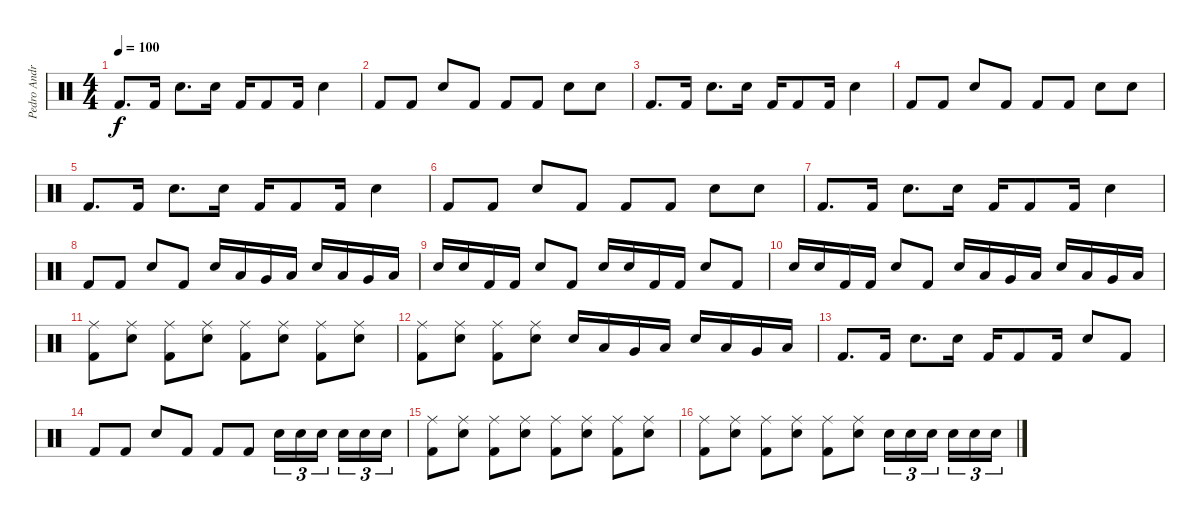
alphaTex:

\track ("Pedro Andreu" "Pedro Andr") {instrument percussion}
\staff {score}
\articulation defaults
\ts (4 4)
\tempo 100
\clef neutral
\ks c "Kick (hit) 2".8{d dy f} "Kick (hit) 2".16 "Snare (hit) 2".8{d} "Snare (hit) 2".16 "Kick (hit) 2".16 "Kick (hit) 2".8 "Kick (hit) 2".16 "Snare (hit) 2".4
|
"Kick (hit) 2".8 "Kick (hit) 2".8 "Snare (hit) 2".8 "Kick (hit) 2".8 "Kick (hit) 2".8 "Kick (hit) 2".8 "Snare (hit) 2".8 "Snare (hit) 2".8 |
"Kick (hit) 2".8{d} "Kick (hit) 2".16 "Snare (hit) 2".8{d} "Snare (hit) 2".16 "Kick (hit) 2".16 "Kick (hit) 2".8 "Kick (hit) 2".16 "Snare (hit) 2".4 |
"Kick (hit) 2".8 "Kick (hit) 2".8 "Snare (hit) 2".8 "Kick (hit) 2".8 "Kick (hit) 2".8 "Kick (hit) 2".8 "Snare (hit) 2".8 "Snare (hit) 2".8 |
"Kick (hit) 2".8{d} "Kick (hit) 2".16 "Snare (hit) 2".8{d} "Snare (hit) 2".16 "Kick (hit) 2".16 "Kick (hit) 2".8 "Kick (hit) 2".16 "Snare (hit) 2".4 |
"Kick (hit) 2".8 "Kick (hit) 2".8 "Snare (hit) 2".8 "Kick (hit) 2".8 "Kick (hit) 2".8 "Kick (hit) 2".8 "Snare (hit) 2".8 "Snare (hit) 2".8 |
"Kick (hit) 2".8{d} "Kick (hit) 2".16 "Snare (hit) 2".8{d} "Snare (hit) 2".16 "Kick (hit) 2".16 "Kick (hit) 2".8 "Kick (hit) 2".16 "Snare (hit) 2".4 |
"Kick (hit) 2".8 "Kick (hit) 2".8 "Snare (hit) 2".8 "Kick (hit) 2".8 "Snare (hit) 2".16 "Low Tom (hit)".16 "Very Low Tom (hit)".16 "Low Floor Tom (hit)".16 "Snare (hit) 2".16 "Low Tom (hit)".16 "Very Low Tom (hit)".16 "Low Floor Tom (hit)".16 |
"Snare (hit) 2".16 "Snare (hit) 2".16 "Kick (hit) 2".16 "Kick (hit) 2".16 "Snare (hit) 2".8 "Kick (hit) 2".8 "Snare (hit) 2".16 "Snare (hit) 2".16 "Kick (hit) 2".16 "Kick (hit) 2".16 "Snare (hit) 2".8 "Kick (hit) 2".8 |
"Snare (hit) 2".16 "Snare (hit) 2".16 "Kick (hit) 2".16 "Kick (hit) 2".16 "Snare (hit) 2".8 "Kick (hit) 2".8 "Snare (hit) 2".16 "Low Tom (hit)".16 "Very Low Tom (hit)".16 "Low Floor Tom (hit)".16 "Snare (hit) 2".16 "Low Tom (hit)".16 "Very Low Tom (hit)".16 "Low Floor Tom (hit)".16 |
("Ride (middle)" "Kick (hit) 2").8 ("Ride (middle)" "Snare (hit) 2").8 ("Ride (middle)" "Kick (hit) 2").8 ("Ride (middle)" "Snare (hit) 2").8 ("Ride (middle)" "Kick (hit) 2").8 ("Snare (hit) 2" "Ride (middle)").8 ("Kick (hit) 2" "Ride (middle)").8 ("Snare (hit) 2" "Ride (middle)").8 |
("Ride (middle)" "Kick (hit) 2").8 ("Ride (middle)" "Snare (hit) 2").8 ("Ride (middle)" "Kick (hit) 2").8 ("Ride (middle)" "Snare (hit) 2").8 "Snare (hit) 2".16 "Low Tom (hit)".16 "Very Low Tom (hit)".16 "Low Floor Tom (hit)".16 "Snare (hit) 2".16 "Low Tom (hit)".16 "Very Low Tom (hit)".16 "Low Floor Tom (hit)".16 |
"Kick (hit) 2".8{d} "Kick (hit) 2".16 "Snare (hit) 2".8{d} "Snare (hit) 2".16 "Kick (hit) 2".16 "Kick (hit) 2".8 "Kick (hit) 2".16 "Snare (hit) 2".8 "Kick (hit) 2".8 |
"Kick (hit) 2".8 "Kick (hit) 2".8 "Snare (hit) 2".8 "Kick (hit) 2".8 "Kick (hit) 2".8 "Kick (hit) 2".8 "Snare (hit) 2".16{tu (3 2)} "Snare (hit) 2".16{tu (3 2)} "Snare (hit) 2".16{tu (3 2) beam splitsecondary} "Snare (hit) 2".16{tu (3 2)} "Snare (hit) 2".16{tu (3 2)} "Snare (hit) 2".16{tu (3 2)} |
("Ride (middle)" "Kick (hit) 2").8 ("Ride (middle)" "Snare (hit) 2").8 ("Ride (middle)" "Kick (hit) 2").8 ("Ride (middle)" "Snare (hit) 2").8 ("Ride (middle)" "Kick (hit) 2").8 ("Snare (hit) 2" "Ride (middle)").8 ("Kick (hit) 2" "Ride (middle)").8 ("Snare (hit) 2" "Ride (middle)").8 |
("Ride (middle)" "Kick (hit) 2").8 ("Ride (middle)" "Snare (hit) 2").8 ("Ride (middle)" "Kick (hit) 2").8 ("Ride (middle)" "Snare (hit) 2").8 ("Ride (middle)" "Kick (hit) 2").8 ("Snare (hit) 2" "Ride (middle)").8 "Snare (hit) 2".16{tu (3 2)} "Snare (hit) 2".16{tu (3 2)} "Snare (hit) 2".16{tu (3 2) beam splitsecondary} "Snare (hit) 2".16{tu (3 2)} "Snare (hit) 2".16{tu (3 2)} "Snare (hit) 2".16{tu (3 2)}
